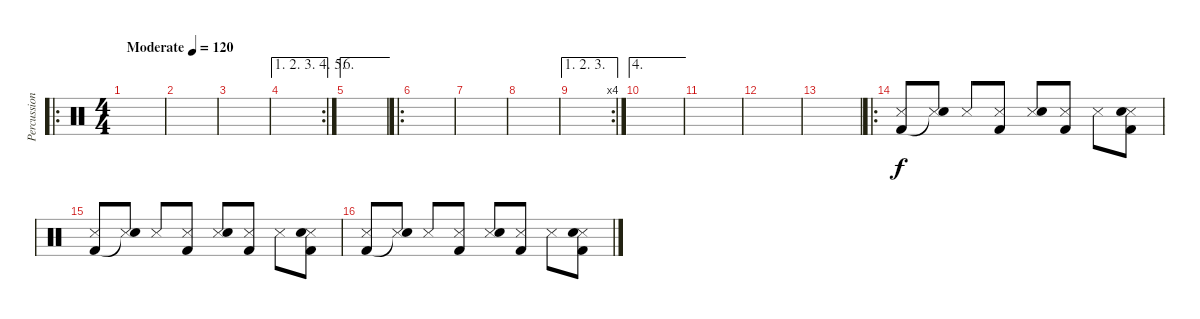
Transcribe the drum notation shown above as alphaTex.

\track ("Percussion" "Percussion") {instrument percussion}
\staff {score}
\articulation defaults
\ro
\ts (4 4)
\tempo (120 "Moderate")
\clef neutral
\ks c
|
|
|
\ae (1 2 3 4 5)
\rc 2
|
\ae 6
|
\ro
|
|
|
\ae (1 2 3)
\rc 4
|
\ae 4
|
|
|
|
\ro
("Snare (side stick) 3" "Kick (hit) 2").8 ("Snare (side stick) 3" "Snare (hit)"{t}).8 "Snare (side stick) 3".8 ("Snare (side stick) 3" "Kick (hit) 2").8 ("Snare (side stick) 3" "Electric Snare (hit)").8 ("Snare (side stick) 3" "Kick (hit) 2").8 "Snare (side stick) 3".8 ("Snare (side stick) 3" "Electric Snare (hit)" "Kick (hit) 2").8 |
("Snare (side stick) 3" "Kick (hit) 2").8 ("Snare (side stick) 3" "Snare (hit)"{t}).8 "Snare (side stick) 3".8 ("Snare (side stick) 3" "Kick (hit) 2").8 ("Snare (side stick) 3" "Electric Snare (hit)").8 ("Snare (side stick) 3" "Kick (hit) 2").8 "Snare (side stick) 3".8 ("Snare (side stick) 3" "Electric Snare (hit)" "Kick (hit) 2").8 |
("Snare (side stick) 3" "Kick (hit) 2").8 ("Snare (side stick) 3" "Snare (hit)"{t}).8 "Snare (side stick) 3".8 ("Snare (side stick) 3" "Kick (hit) 2").8 ("Snare (side stick) 3" "Electric Snare (hit)").8 ("Snare (side stick) 3" "Kick (hit) 2").8 "Snare (side stick) 3".8 ("Snare (side stick) 3" "Electric Snare (hit)" "Kick (hit) 2").8
